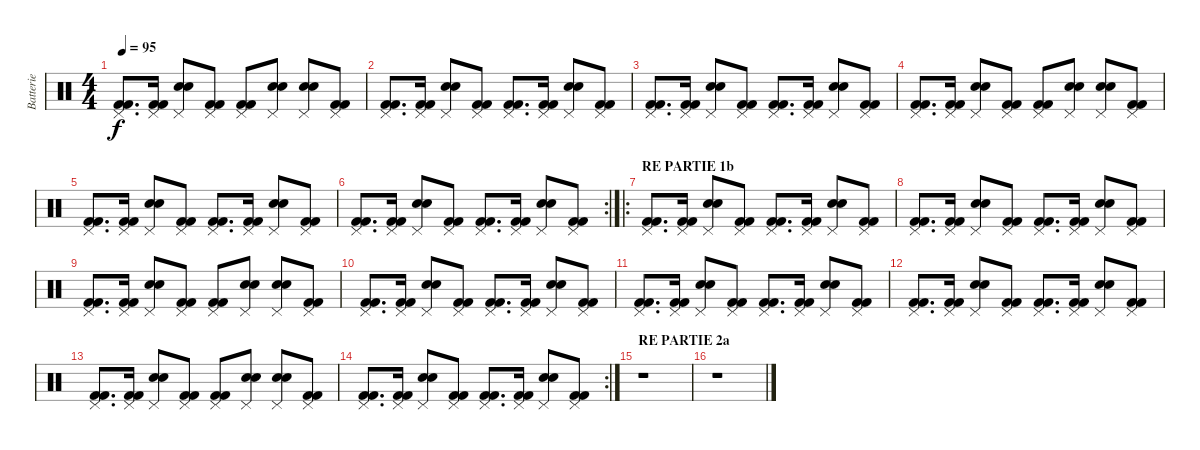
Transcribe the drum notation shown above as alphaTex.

\track ("Batterie" "Batterie") {instrument percussion}
\staff {score}
\articulation defaults
\ts (4 4)
\tempo 95
\clef neutral
\ks c
("Pedal Hi-Hat (hit)" "Kick (hit) 2" "Kick (hit) 2").8{d dy f} ("Pedal Hi-Hat (hit)" "Kick (hit) 2" "Kick (hit) 2").16 ("Pedal Hi-Hat (hit)" "Electric Snare (hit)" "Electric Snare (hit)").8 ("Pedal Hi-Hat (hit)" "Kick (hit) 2" "Kick (hit) 2").8 ("Pedal Hi-Hat (hit)" "Kick (hit) 2" "Kick (hit) 2").8 ("Pedal Hi-Hat (hit)" "Electric Snare (hit)" "Electric Snare (hit)").8 ("Pedal Hi-Hat (hit)" "Electric Snare (hit)" "Electric Snare (hit)").8 ("Pedal Hi-Hat (hit)" "Kick (hit) 2" "Kick (hit) 2").8 |
("Pedal Hi-Hat (hit)" "Kick (hit) 2" "Kick (hit) 2").8{d} ("Pedal Hi-Hat (hit)" "Kick (hit) 2" "Kick (hit) 2").16 ("Pedal Hi-Hat (hit)" "Electric Snare (hit)" "Electric Snare (hit)").8 ("Pedal Hi-Hat (hit)" "Kick (hit) 2" "Kick (hit) 2").8 ("Pedal Hi-Hat (hit)" "Kick (hit) 2" "Kick (hit) 2").8{d} ("Pedal Hi-Hat (hit)" "Kick (hit) 2" "Kick (hit) 2").16 ("Pedal Hi-Hat (hit)" "Electric Snare (hit)" "Electric Snare (hit)").8 ("Pedal Hi-Hat (hit)" "Kick (hit) 2" "Kick (hit) 2").8 |
("Pedal Hi-Hat (hit)" "Kick (hit) 2" "Kick (hit) 2").8{d} ("Pedal Hi-Hat (hit)" "Kick (hit) 2" "Kick (hit) 2").16 ("Pedal Hi-Hat (hit)" "Electric Snare (hit)" "Electric Snare (hit)").8 ("Pedal Hi-Hat (hit)" "Kick (hit) 2" "Kick (hit) 2").8 ("Pedal Hi-Hat (hit)" "Kick (hit) 2" "Kick (hit) 2").8{d} ("Pedal Hi-Hat (hit)" "Kick (hit) 2" "Kick (hit) 2").16 ("Pedal Hi-Hat (hit)" "Electric Snare (hit)" "Electric Snare (hit)").8 ("Pedal Hi-Hat (hit)" "Kick (hit) 2" "Kick (hit) 2").8 |
("Pedal Hi-Hat (hit)" "Kick (hit) 2" "Kick (hit) 2").8{d} ("Pedal Hi-Hat (hit)" "Kick (hit) 2" "Kick (hit) 2").16 ("Pedal Hi-Hat (hit)" "Electric Snare (hit)" "Electric Snare (hit)").8 ("Pedal Hi-Hat (hit)" "Kick (hit) 2" "Kick (hit) 2").8 ("Pedal Hi-Hat (hit)" "Kick (hit) 2" "Kick (hit) 2").8 ("Pedal Hi-Hat (hit)" "Electric Snare (hit)" "Electric Snare (hit)").8 ("Pedal Hi-Hat (hit)" "Electric Snare (hit)" "Electric Snare (hit)").8 ("Pedal Hi-Hat (hit)" "Kick (hit) 2" "Kick (hit) 2").8 |
("Pedal Hi-Hat (hit)" "Kick (hit) 2" "Kick (hit) 2").8{d} ("Pedal Hi-Hat (hit)" "Kick (hit) 2" "Kick (hit) 2").16 ("Pedal Hi-Hat (hit)" "Electric Snare (hit)" "Electric Snare (hit)").8 ("Pedal Hi-Hat (hit)" "Kick (hit) 2" "Kick (hit) 2").8 ("Pedal Hi-Hat (hit)" "Kick (hit) 2" "Kick (hit) 2").8{d} ("Pedal Hi-Hat (hit)" "Kick (hit) 2" "Kick (hit) 2").16 ("Pedal Hi-Hat (hit)" "Electric Snare (hit)" "Electric Snare (hit)").8 ("Pedal Hi-Hat (hit)" "Kick (hit) 2" "Kick (hit) 2").8 |
\rc 2
("Pedal Hi-Hat (hit)" "Kick (hit) 2" "Kick (hit) 2").8{d} ("Pedal Hi-Hat (hit)" "Kick (hit) 2" "Kick (hit) 2").16 ("Pedal Hi-Hat (hit)" "Electric Snare (hit)" "Electric Snare (hit)").8 ("Pedal Hi-Hat (hit)" "Kick (hit) 2" "Kick (hit) 2").8 ("Pedal Hi-Hat (hit)" "Kick (hit) 2" "Kick (hit) 2").8{d} ("Pedal Hi-Hat (hit)" "Kick (hit) 2" "Kick (hit) 2").16 ("Pedal Hi-Hat (hit)" "Electric Snare (hit)" "Electric Snare (hit)").8 ("Pedal Hi-Hat (hit)" "Kick (hit) 2" "Kick (hit) 2").8 |
\ro
\section ("" "RE PARTIE 1b")
("Pedal Hi-Hat (hit)" "Kick (hit) 2" "Kick (hit) 2").8{d} ("Pedal Hi-Hat (hit)" "Kick (hit) 2" "Kick (hit) 2").16 ("Pedal Hi-Hat (hit)" "Electric Snare (hit)" "Electric Snare (hit)").8 ("Pedal Hi-Hat (hit)" "Kick (hit) 2" "Kick (hit) 2").8 ("Pedal Hi-Hat (hit)" "Kick (hit) 2" "Kick (hit) 2").8{d} ("Pedal Hi-Hat (hit)" "Kick (hit) 2" "Kick (hit) 2").16 ("Pedal Hi-Hat (hit)" "Electric Snare (hit)" "Electric Snare (hit)").8 ("Pedal Hi-Hat (hit)" "Kick (hit) 2" "Kick (hit) 2").8 |
("Pedal Hi-Hat (hit)" "Kick (hit) 2" "Kick (hit) 2").8{d} ("Pedal Hi-Hat (hit)" "Kick (hit) 2" "Kick (hit) 2").16 ("Pedal Hi-Hat (hit)" "Electric Snare (hit)" "Electric Snare (hit)").8 ("Pedal Hi-Hat (hit)" "Kick (hit) 2" "Kick (hit) 2").8 ("Pedal Hi-Hat (hit)" "Kick (hit) 2" "Kick (hit) 2").8{d} ("Pedal Hi-Hat (hit)" "Kick (hit) 2" "Kick (hit) 2").16 ("Pedal Hi-Hat (hit)" "Electric Snare (hit)" "Electric Snare (hit)").8 ("Pedal Hi-Hat (hit)" "Kick (hit) 2" "Kick (hit) 2").8 |
("Pedal Hi-Hat (hit)" "Kick (hit) 2" "Kick (hit) 2").8{d} ("Pedal Hi-Hat (hit)" "Kick (hit) 2" "Kick (hit) 2").16 ("Pedal Hi-Hat (hit)" "Electric Snare (hit)" "Electric Snare (hit)").8 ("Pedal Hi-Hat (hit)" "Kick (hit) 2" "Kick (hit) 2").8 ("Pedal Hi-Hat (hit)" "Kick (hit) 2" "Kick (hit) 2").8 ("Pedal Hi-Hat (hit)" "Electric Snare (hit)" "Electric Snare (hit)").8 ("Pedal Hi-Hat (hit)" "Electric Snare (hit)" "Electric Snare (hit)").8 ("Pedal Hi-Hat (hit)" "Kick (hit) 2" "Kick (hit) 2").8 |
("Pedal Hi-Hat (hit)" "Kick (hit) 2" "Kick (hit) 2").8{d} ("Pedal Hi-Hat (hit)" "Kick (hit) 2" "Kick (hit) 2").16 ("Pedal Hi-Hat (hit)" "Electric Snare (hit)" "Electric Snare (hit)").8 ("Pedal Hi-Hat (hit)" "Kick (hit) 2" "Kick (hit) 2").8 ("Pedal Hi-Hat (hit)" "Kick (hit) 2" "Kick (hit) 2").8{d} ("Pedal Hi-Hat (hit)" "Kick (hit) 2" "Kick (hit) 2").16 ("Pedal Hi-Hat (hit)" "Electric Snare (hit)" "Electric Snare (hit)").8 ("Pedal Hi-Hat (hit)" "Kick (hit) 2" "Kick (hit) 2").8 |
("Pedal Hi-Hat (hit)" "Kick (hit) 2" "Kick (hit) 2").8{d} ("Pedal Hi-Hat (hit)" "Kick (hit) 2" "Kick (hit) 2").16 ("Pedal Hi-Hat (hit)" "Electric Snare (hit)" "Electric Snare (hit)").8 ("Pedal Hi-Hat (hit)" "Kick (hit) 2" "Kick (hit) 2").8 ("Pedal Hi-Hat (hit)" "Kick (hit) 2" "Kick (hit) 2").8{d} ("Pedal Hi-Hat (hit)" "Kick (hit) 2" "Kick (hit) 2").16 ("Pedal Hi-Hat (hit)" "Electric Snare (hit)" "Electric Snare (hit)").8 ("Pedal Hi-Hat (hit)" "Kick (hit) 2" "Kick (hit) 2").8 |
("Pedal Hi-Hat (hit)" "Kick (hit) 2" "Kick (hit) 2").8{d} ("Pedal Hi-Hat (hit)" "Kick (hit) 2" "Kick (hit) 2").16 ("Pedal Hi-Hat (hit)" "Electric Snare (hit)" "Electric Snare (hit)").8 ("Pedal Hi-Hat (hit)" "Kick (hit) 2" "Kick (hit) 2").8 ("Pedal Hi-Hat (hit)" "Kick (hit) 2" "Kick (hit) 2").8{d} ("Pedal Hi-Hat (hit)" "Kick (hit) 2" "Kick (hit) 2").16 ("Pedal Hi-Hat (hit)" "Electric Snare (hit)" "Electric Snare (hit)").8 ("Pedal Hi-Hat (hit)" "Kick (hit) 2" "Kick (hit) 2").8 |
("Pedal Hi-Hat (hit)" "Kick (hit) 2" "Kick (hit) 2").8{d} ("Pedal Hi-Hat (hit)" "Kick (hit) 2" "Kick (hit) 2").16 ("Pedal Hi-Hat (hit)" "Electric Snare (hit)" "Electric Snare (hit)").8 ("Pedal Hi-Hat (hit)" "Kick (hit) 2" "Kick (hit) 2").8 ("Pedal Hi-Hat (hit)" "Kick (hit) 2" "Kick (hit) 2").8 ("Pedal Hi-Hat (hit)" "Electric Snare (hit)" "Electric Snare (hit)").8 ("Pedal Hi-Hat (hit)" "Electric Snare (hit)" "Electric Snare (hit)").8 ("Pedal Hi-Hat (hit)" "Kick (hit) 2" "Kick (hit) 2").8 |
\rc 2
("Pedal Hi-Hat (hit)" "Kick (hit) 2" "Kick (hit) 2").8{d} ("Pedal Hi-Hat (hit)" "Kick (hit) 2" "Kick (hit) 2").16 ("Pedal Hi-Hat (hit)" "Electric Snare (hit)" "Electric Snare (hit)").8 ("Pedal Hi-Hat (hit)" "Kick (hit) 2" "Kick (hit) 2").8 ("Pedal Hi-Hat (hit)" "Kick (hit) 2" "Kick (hit) 2").8{d} ("Pedal Hi-Hat (hit)" "Kick (hit) 2" "Kick (hit) 2").16 ("Pedal Hi-Hat (hit)" "Electric Snare (hit)" "Electric Snare (hit)").8 ("Pedal Hi-Hat (hit)" "Kick (hit) 2" "Kick (hit) 2").8 |
\section ("" "RE PARTIE 2a")
r.1 |
r.1
